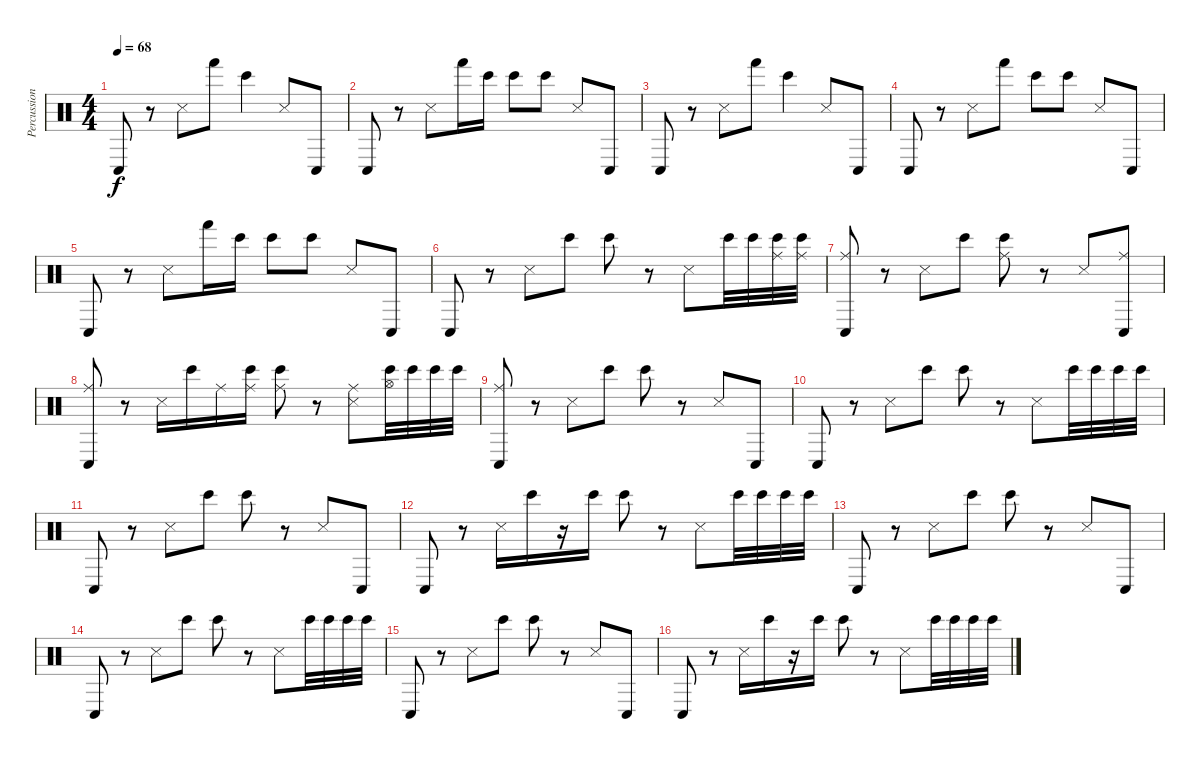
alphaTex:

\track ("Percussion" "Percussion") {instrument percussion}
\staff {score}
\articulation defaults
\ts (4 4)
\tempo 68
\clef neutral
\ks c "Conga low (hit)".8{dy f}
r.8 "Snare (side stick) 3".8 "Hand (hit)".8 "Bongo High (hit)".4 "Snare (side stick) 3".8 "Conga low (hit)".8 |
"Conga low (hit)".8 r.8 "Snare (side stick) 3".8 "Hand (hit)".16 "Bongo High (hit)".16 "Bongo High (hit)".8 "Bongo High (hit)".8 "Snare (side stick) 3".8 "Conga low (hit)".8 |
"Conga low (hit)".8 r.8 "Snare (side stick) 3".8 "Hand (hit)".8 "Bongo High (hit)".4 "Snare (side stick) 3".8 "Conga low (hit)".8 |
"Conga low (hit)".8 r.8 "Snare (side stick) 3".8 "Hand (hit)".8 "Bongo High (hit)".8 "Bongo High (hit)".8 "Snare (side stick) 3".8 "Conga low (hit)".8 |
"Conga low (hit)".8 r.8 "Snare (side stick) 3".8 "Hand (hit)".16 "Bongo High (hit)".16 "Bongo High (hit)".8 "Bongo High (hit)".8 "Snare (side stick) 3".8 "Conga low (hit)".8 |
"Conga low (hit)".8 r.8 "Snare (side stick) 3".8 "Bongo High (hit)".8 "Bongo High (hit)".8 r.8 "Snare (side stick) 3".8 "Bongo High (hit)".32 "Bongo High (hit)".32 ("Bongo High (hit)" "Ride (middle)").32 ("Bongo High (hit)" "Ride (middle)").32 |
("Ride (middle)" "Conga low (hit)").8 r.8 "Snare (side stick) 3".8 "Bongo High (hit)".8 ("Ride (middle)" "Bongo High (hit)").8 r.8 "Snare (side stick) 3".8 ("Ride (middle)" "Conga low (hit)").8 |
("Ride (middle)" "Conga low (hit)").8 r.8 "Snare (side stick) 3".16 "Bongo High (hit)".16 "Ride (middle)".16 ("Ride (middle)" "Bongo High (hit)").16 ("Ride (middle)" "Bongo High (hit)").8 r.8 ("Ride (middle)" "Snare (side stick) 3").8 ("Bongo High (hit)" "Hi-Hat (open)").32 "Bongo High (hit)".32 "Bongo High (hit)".32 "Bongo High (hit)".32 |
("Ride (middle)" "Conga low (hit)").8 r.8 "Snare (side stick) 3".8 "Bongo High (hit)".8 "Bongo High (hit)".8 r.8 "Snare (side stick) 3".8 "Conga low (hit)".8 |
"Conga low (hit)".8 r.8 "Snare (side stick) 3".8 "Bongo High (hit)".8 "Bongo High (hit)".8 r.8 "Snare (side stick) 3".8 "Bongo High (hit)".32 "Bongo High (hit)".32 "Bongo High (hit)".32 "Bongo High (hit)".32 |
"Conga low (hit)".8 r.8 "Snare (side stick) 3".8 "Bongo High (hit)".8 "Bongo High (hit)".8 r.8 "Snare (side stick) 3".8 "Conga low (hit)".8 |
"Conga low (hit)".8 r.8 "Snare (side stick) 3".16 "Bongo High (hit)".16 r.16 "Bongo High (hit)".16 "Bongo High (hit)".8 r.8 "Snare (side stick) 3".8 "Bongo High (hit)".32 "Bongo High (hit)".32 "Bongo High (hit)".32 "Bongo High (hit)".32 |
"Conga low (hit)".8 r.8 "Snare (side stick) 3".8 "Bongo High (hit)".8 "Bongo High (hit)".8 r.8 "Snare (side stick) 3".8 "Conga low (hit)".8 |
"Conga low (hit)".8 r.8 "Snare (side stick) 3".8 "Bongo High (hit)".8 "Bongo High (hit)".8 r.8 "Snare (side stick) 3".8 "Bongo High (hit)".32 "Bongo High (hit)".32 "Bongo High (hit)".32 "Bongo High (hit)".32 |
"Conga low (hit)".8 r.8 "Snare (side stick) 3".8 "Bongo High (hit)".8 "Bongo High (hit)".8 r.8 "Snare (side stick) 3".8 "Conga low (hit)".8 |
"Conga low (hit)".8 r.8 "Snare (side stick) 3".16 "Bongo High (hit)".16 r.16 "Bongo High (hit)".16 "Bongo High (hit)".8 r.8 "Snare (side stick) 3".8 "Bongo High (hit)".32 "Bongo High (hit)".32 "Bongo High (hit)".32 "Bongo High (hit)".32
